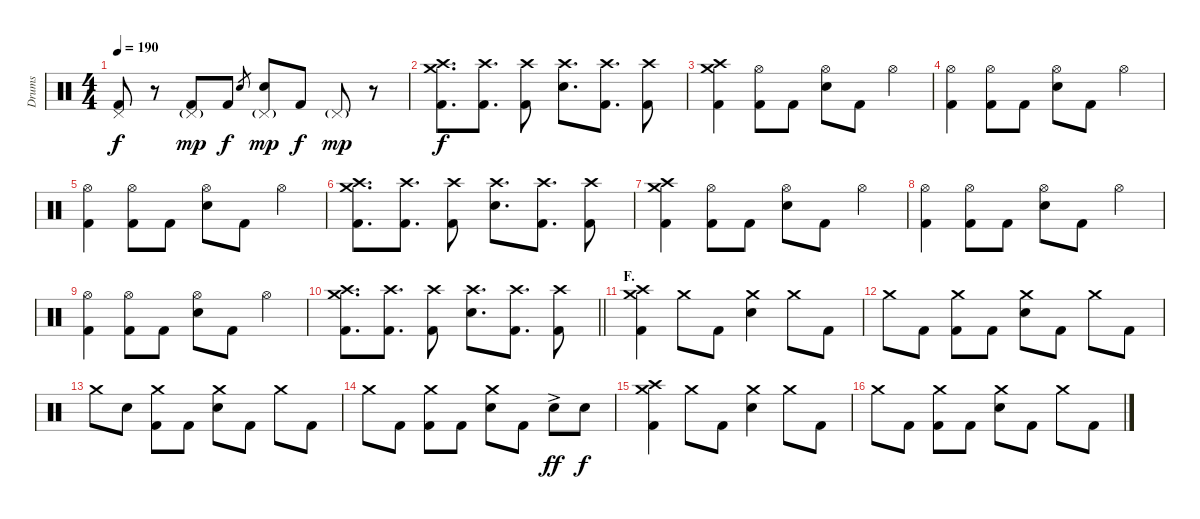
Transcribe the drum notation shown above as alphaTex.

\track ("Drums" "Drums") {instrument percussion}
\staff {score}
\articulation defaults
\ts (4 4)
\tempo 190
\clef neutral
\ks c
("Pedal Hi-Hat (hit)" "Kick (hit) 2").8{dy f} r.8 ("Pedal Hi-Hat (hit)"{g} "Kick (hit) 2").8{dy mp} "Kick (hit) 2".8{dy f} "Electric Snare (hit)".8{gr} ("Pedal Hi-Hat (hit)"{g} "Electric Snare (hit)").8{dy mp} "Kick (hit) 2".8{dy f} "Pedal Hi-Hat (hit)"{g}.8{dy mp} r.8 |
("Crash medium (hit)" "Crash high (hit)" "Kick (hit) 2").8{d dy f} ("Crash high (hit)" "Kick (hit) 2").8{d} ("Crash high (hit)" "Kick (hit) 2").8 ("Crash high (hit)" "Electric Snare (hit)").8{d} ("Crash high (hit)" "Kick (hit) 2").8{d} ("Crash high (hit)" "Kick (hit) 2").8 |
("Crash medium (hit)" "Crash high (hit)" "Kick (hit) 2").4 ("Hi-Hat (open)" "Kick (hit) 2").8 "Kick (hit) 2".8 ("Hi-Hat (open)" "Electric Snare (hit)").8 "Kick (hit) 2".8 "Hi-Hat (open)".4 |
("Hi-Hat (open)" "Kick (hit) 2").4 ("Hi-Hat (open)" "Kick (hit) 2").8 "Kick (hit) 2".8 ("Hi-Hat (open)" "Electric Snare (hit)").8 "Kick (hit) 2".8 "Hi-Hat (open)".4 |
("Hi-Hat (open)" "Kick (hit) 2").4 ("Hi-Hat (open)" "Kick (hit) 2").8 "Kick (hit) 2".8 ("Hi-Hat (open)" "Electric Snare (hit)").8 "Kick (hit) 2".8 "Hi-Hat (open)".4 |
("Crash medium (hit)" "Crash high (hit)" "Kick (hit) 2").8{d} ("Crash high (hit)" "Kick (hit) 2").8{d} ("Crash high (hit)" "Kick (hit) 2").8 ("Crash high (hit)" "Electric Snare (hit)").8{d} ("Crash high (hit)" "Kick (hit) 2").8{d} ("Crash high (hit)" "Kick (hit) 2").8 |
("Crash medium (hit)" "Crash high (hit)" "Kick (hit) 2").4 ("Hi-Hat (open)" "Kick (hit) 2").8 "Kick (hit) 2".8 ("Hi-Hat (open)" "Electric Snare (hit)").8 "Kick (hit) 2".8 "Hi-Hat (open)".4 |
("Hi-Hat (open)" "Kick (hit) 2").4 ("Hi-Hat (open)" "Kick (hit) 2").8 "Kick (hit) 2".8 ("Hi-Hat (open)" "Electric Snare (hit)").8 "Kick (hit) 2".8 "Hi-Hat (open)".4 |
("Hi-Hat (open)" "Kick (hit) 2").4 ("Hi-Hat (open)" "Kick (hit) 2").8 "Kick (hit) 2".8 ("Hi-Hat (open)" "Electric Snare (hit)").8 "Kick (hit) 2".8 "Hi-Hat (open)".4 |
\barLineRight lightlight
("Crash medium (hit)" "Crash high (hit)" "Kick (hit) 2").8{d} ("Crash high (hit)" "Kick (hit) 2").8{d} ("Crash high (hit)" "Kick (hit) 2").8 ("Crash high (hit)" "Electric Snare (hit)").8{d} ("Crash high (hit)" "Kick (hit) 2").8{d} ("Crash high (hit)" "Kick (hit) 2").8 |
\section ("" "F.")
("Crash medium (hit)" "Crash high (hit)" "Kick (hit) 2").4 "Crash medium (hit)".8 "Kick (hit) 2".8 ("Crash medium (hit)" "Electric Snare (hit)").4 "Crash medium (hit)".8 "Kick (hit) 2".8 |
"Crash medium (hit)".8 "Kick (hit) 2".8 ("Crash medium (hit)" "Kick (hit) 2").8 "Kick (hit) 2".8 ("Crash medium (hit)" "Electric Snare (hit)").8 "Kick (hit) 2".8 "Crash medium (hit)".8 "Kick (hit) 2".8 |
"Crash medium (hit)".8 "Electric Snare (hit)".8 ("Crash medium (hit)" "Kick (hit) 2").8 "Kick (hit) 2".8 ("Crash medium (hit)" "Electric Snare (hit)").8 "Kick (hit) 2".8 "Crash medium (hit)".8 "Kick (hit) 2".8 |
"Crash medium (hit)".8 "Kick (hit) 2".8 ("Crash medium (hit)" "Kick (hit) 2").8 "Kick (hit) 2".8 ("Crash medium (hit)" "Electric Snare (hit)").8 "Kick (hit) 2".8 "Electric Snare (hit)"{ac}.8{dy ff} "Electric Snare (hit)".8{dy f} |
("Crash medium (hit)" "Crash high (hit)" "Kick (hit) 2").4 "Crash medium (hit)".8 "Kick (hit) 2".8 ("Crash medium (hit)" "Electric Snare (hit)").4 "Crash medium (hit)".8 "Kick (hit) 2".8 |
"Crash medium (hit)".8 "Kick (hit) 2".8 ("Crash medium (hit)" "Kick (hit) 2").8 "Kick (hit) 2".8 ("Crash medium (hit)" "Electric Snare (hit)").8 "Kick (hit) 2".8 "Crash medium (hit)".8 "Kick (hit) 2".8
